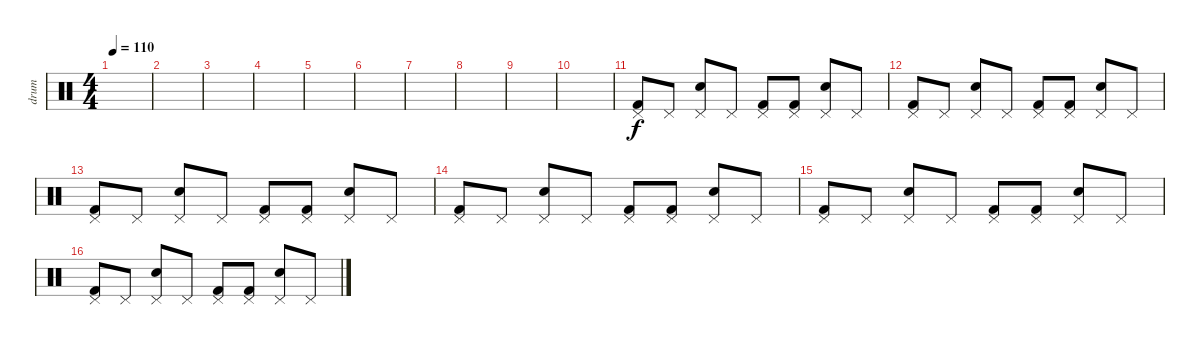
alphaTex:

\track ("drum" "drum") {instrument percussion}
\staff {score}
\articulation defaults
\ts (4 4)
\tempo 110
\clef neutral
\ks c
|
|
|
|
|
|
|
|
|
|
("Pedal Hi-Hat (hit)" "Kick (hit) 2").8 "Pedal Hi-Hat (hit)".8 ("Pedal Hi-Hat (hit)" "Electric Snare (hit)").8 "Pedal Hi-Hat (hit)".8 ("Pedal Hi-Hat (hit)" "Kick (hit) 2").8 ("Pedal Hi-Hat (hit)" "Kick (hit) 2").8 ("Pedal Hi-Hat (hit)" "Electric Snare (hit)").8 "Pedal Hi-Hat (hit)".8 |
("Pedal Hi-Hat (hit)" "Kick (hit) 2").8 "Pedal Hi-Hat (hit)".8 ("Pedal Hi-Hat (hit)" "Electric Snare (hit)").8 "Pedal Hi-Hat (hit)".8 ("Pedal Hi-Hat (hit)" "Kick (hit) 2").8 ("Pedal Hi-Hat (hit)" "Kick (hit) 2").8 ("Pedal Hi-Hat (hit)" "Electric Snare (hit)").8 "Pedal Hi-Hat (hit)".8 |
("Pedal Hi-Hat (hit)" "Kick (hit) 2").8 "Pedal Hi-Hat (hit)".8 ("Pedal Hi-Hat (hit)" "Electric Snare (hit)").8 "Pedal Hi-Hat (hit)".8 ("Pedal Hi-Hat (hit)" "Kick (hit) 2").8 ("Pedal Hi-Hat (hit)" "Kick (hit) 2").8 ("Pedal Hi-Hat (hit)" "Electric Snare (hit)").8 "Pedal Hi-Hat (hit)".8 |
("Pedal Hi-Hat (hit)" "Kick (hit) 2").8 "Pedal Hi-Hat (hit)".8 ("Pedal Hi-Hat (hit)" "Electric Snare (hit)").8 "Pedal Hi-Hat (hit)".8 ("Pedal Hi-Hat (hit)" "Kick (hit) 2").8 ("Pedal Hi-Hat (hit)" "Kick (hit) 2").8 ("Pedal Hi-Hat (hit)" "Electric Snare (hit)").8 "Pedal Hi-Hat (hit)".8 |
("Pedal Hi-Hat (hit)" "Kick (hit) 2").8 "Pedal Hi-Hat (hit)".8 ("Pedal Hi-Hat (hit)" "Electric Snare (hit)").8 "Pedal Hi-Hat (hit)".8 ("Pedal Hi-Hat (hit)" "Kick (hit) 2").8 ("Pedal Hi-Hat (hit)" "Kick (hit) 2").8 ("Pedal Hi-Hat (hit)" "Electric Snare (hit)").8 "Pedal Hi-Hat (hit)".8 |
("Pedal Hi-Hat (hit)" "Kick (hit) 2").8 "Pedal Hi-Hat (hit)".8 ("Pedal Hi-Hat (hit)" "Electric Snare (hit)").8 "Pedal Hi-Hat (hit)".8 ("Pedal Hi-Hat (hit)" "Kick (hit) 2").8 ("Pedal Hi-Hat (hit)" "Kick (hit) 2").8 ("Pedal Hi-Hat (hit)" "Electric Snare (hit)").8 "Pedal Hi-Hat (hit)".8
